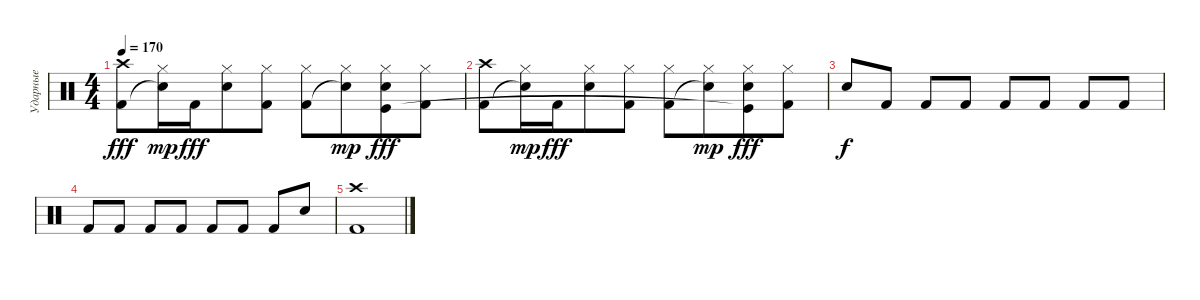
\track ("Ударные" "Ударные") {instrument percussion}
\staff {score}
\articulation defaults
\ts (4 4)
\tempo 170
\clef neutral
\ks c
("Crash high (hit)" "Kick (hit) 2").8{dy fff} ("Hi-Hat (closed)" "Snare (hit)"{t}).16{dy mp} "Kick (hit) 2".16{dy fff beam merge} ("Hi-Hat (closed)" "Electric Snare (hit)").8 ("Hi-Hat (closed)" "Kick (hit) 2").8 ("Hi-Hat (closed)" "Kick (hit) 2").8 ("Hi-Hat (closed)" "Snare (hit)"{t}).8{dy mp beam merge} ("Hi-Hat (closed)" "Electric Snare (hit)" "Kick (hit)"{t}).8{dy fff} ("Hi-Hat (closed)" "Kick (hit) 2").8 |
("Crash high (hit)" "Kick (hit) 2").8 ("Hi-Hat (closed)" "Snare (hit)"{t}).16{dy mp} "Kick (hit) 2".16{dy fff beam merge} ("Hi-Hat (closed)" "Electric Snare (hit)").8 ("Hi-Hat (closed)" "Kick (hit) 2").8 ("Hi-Hat (closed)" "Kick (hit) 2").8 ("Hi-Hat (closed)" "Snare (hit)"{t}).8{dy mp beam merge} ("Hi-Hat (closed)" "Electric Snare (hit)" "Kick (hit)"{t}).8{dy fff} ("Hi-Hat (closed)" "Kick (hit) 2").8 |
"Electric Snare (hit)".8{dy f} "Kick (hit) 2".8 "Kick (hit) 2".8 "Kick (hit) 2".8 "Kick (hit) 2".8 "Kick (hit) 2".8 "Kick (hit) 2".8 "Kick (hit) 2".8 |
"Kick (hit) 2".8 "Kick (hit) 2".8 "Kick (hit) 2".8 "Kick (hit) 2".8 "Kick (hit) 2".8 "Kick (hit) 2".8 "Kick (hit) 2".8 "Electric Snare (hit)".8 |
("Kick (hit) 2" "Crash high (hit)").1
